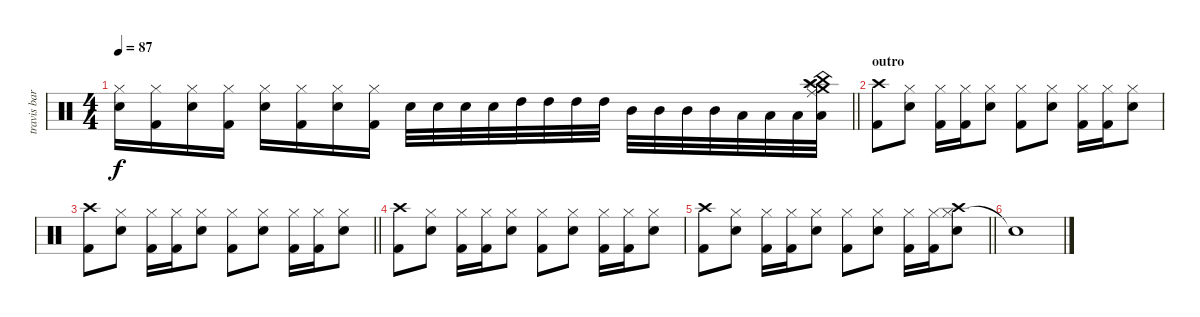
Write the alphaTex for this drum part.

\track ("travis barker" "travis bar") {instrument percussion}
\staff {score}
\articulation defaults
\ts (4 4)
\tempo 87
\clef neutral
\barLineRight lightlight
\ks c
("Hi-Hat (closed)" "Snare (hit) 2").16{dy f} ("Hi-Hat (closed)" "Kick (hit) 2").16 ("Hi-Hat (closed)" "Snare (hit) 2").16 ("Hi-Hat (closed)" "Kick (hit) 2").16 ("Hi-Hat (closed)" "Snare (hit) 2").16 ("Hi-Hat (closed)" "Kick (hit) 2").16 ("Hi-Hat (closed)" "Snare (hit) 2").16 ("Hi-Hat (closed)" "Kick (hit) 2").16 "Snare (hit) 2".32 "Snare (hit) 2".32 "Snare (hit) 2".32 "Snare (hit) 2".32 "High Tom (hit)".32 "High Tom (hit)".32 "High Tom (hit)".32 "High Tom (hit)".32 "Mid Tom (hit)".32 "Mid Tom (hit)".32 "Mid Tom (hit)".32 "Mid Tom (hit)".32 "Low Tom (hit)".32 "Low Tom (hit)".32 "Low Tom (hit)".32 ("Crash high (hit)" "Ride (middle)" "China (hit)" "Low Tom (hit)" "Splash (hit)" "Crash medium (hit)").32 |
\section ("" "outro")
("Crash high (hit)" "Kick (hit) 2").8 ("Hi-Hat (closed)" "Snare (hit) 2").8 ("Hi-Hat (closed)" "Kick (hit) 2").16 ("Hi-Hat (closed)" "Kick (hit) 2").16 ("Hi-Hat (closed)" "Snare (hit) 2").8 ("Hi-Hat (closed)" "Kick (hit) 2").8 ("Hi-Hat (closed)" "Snare (hit) 2").8 ("Hi-Hat (closed)" "Kick (hit) 2").16 ("Hi-Hat (closed)" "Kick (hit) 2").16 ("Hi-Hat (closed)" "Snare (hit) 2").8 |
\barLineRight lightlight
("Crash high (hit)" "Kick (hit) 2").8 ("Hi-Hat (closed)" "Snare (hit) 2").8 ("Hi-Hat (closed)" "Kick (hit) 2").16 ("Hi-Hat (closed)" "Kick (hit) 2").16 ("Hi-Hat (closed)" "Snare (hit) 2").8 ("Hi-Hat (closed)" "Kick (hit) 2").8 ("Hi-Hat (closed)" "Snare (hit) 2").8 ("Hi-Hat (closed)" "Kick (hit) 2").16 ("Hi-Hat (closed)" "Kick (hit) 2").16 ("Hi-Hat (closed)" "Snare (hit) 2").8 |
("Crash high (hit)" "Kick (hit) 2").8 ("Hi-Hat (closed)" "Snare (hit) 2").8 ("Hi-Hat (closed)" "Kick (hit) 2").16 ("Hi-Hat (closed)" "Kick (hit) 2").16 ("Hi-Hat (closed)" "Snare (hit) 2").8 ("Hi-Hat (closed)" "Kick (hit) 2").8 ("Hi-Hat (closed)" "Snare (hit) 2").8 ("Hi-Hat (closed)" "Kick (hit) 2").16 ("Hi-Hat (closed)" "Kick (hit) 2").16 ("Hi-Hat (closed)" "Snare (hit) 2").8 |
\barLineRight lightlight
("Crash high (hit)" "Kick (hit) 2").8 ("Hi-Hat (closed)" "Snare (hit) 2").8 ("Hi-Hat (closed)" "Kick (hit) 2").16 ("Hi-Hat (closed)" "Kick (hit) 2").16 ("Hi-Hat (closed)" "Snare (hit) 2").8 ("Hi-Hat (closed)" "Kick (hit) 2").8 ("Hi-Hat (closed)" "Snare (hit) 2").8 ("Hi-Hat (closed)" "Kick (hit) 2").16 ("Hi-Hat (closed)" "Kick (hit) 2").16 ("Hi-Hat (closed)" "Crash high (hit)" "Snare (hit) 2").8 |
"Snare (hit)"{t}.1
